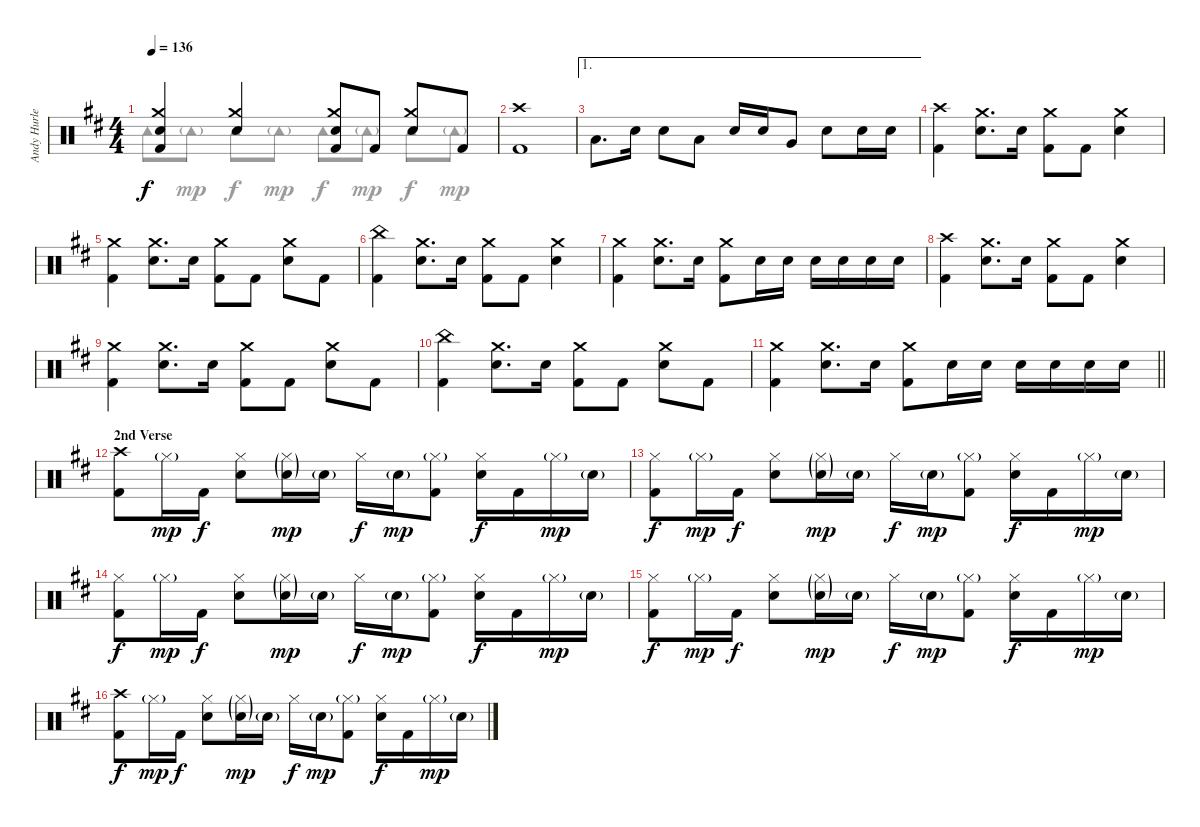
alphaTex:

\track ("Andy Hurley" "Andy Hurle") {instrument percussion}
\staff {score}
\articulation defaults
\voice
\ts (4 4)
\tempo 136
\clef neutral
\ks d
("Crash medium (hit)" "Snare (hit) 2" "Kick (hit) 2").4{dy f} ("Crash medium (hit)" "Snare (hit) 2").4 ("Crash medium (hit)" "Snare (hit) 2" "Kick (hit) 2").8 "Kick (hit) 2".8 ("Crash medium (hit)" "Snare (hit) 2").8 "Kick (hit) 2".8 |
("Crash high (hit)" "Kick (hit) 2").1 |
\ae 1 "Low Tom (hit)".8{d} "Snare (hit) 2".16 "Snare (hit) 2".8 "Low Tom (hit)".8 "Snare (hit) 2".16 "Snare (hit) 2".16 "Very Low Tom (hit)".8 "Snare (hit) 2".8 "Snare (hit) 2".16 "Snare (hit) 2".16
|
("Crash high (hit)" "Kick (hit) 2").4 ("Crash medium (hit)" "Snare (hit) 2").8{d} "Snare (hit) 2".16 ("Crash medium (hit)" "Kick (hit) 2").8 "Kick (hit) 2".8 ("Crash medium (hit)" "Snare (hit) 2").4 |
("Crash medium (hit)" "Kick (hit) 2").4 ("Crash medium (hit)" "Snare (hit) 2").8{d} "Snare (hit) 2".16 ("Crash medium (hit)" "Kick (hit) 2").8 "Kick (hit) 2".8 ("Crash medium (hit)" "Snare (hit) 2").8 "Kick (hit) 2".8 |
("China (hit)" "Kick (hit) 2").4 ("Crash medium (hit)" "Snare (hit) 2").8{d} "Snare (hit) 2".16 ("Crash medium (hit)" "Kick (hit) 2").8 "Kick (hit) 2".8 ("Crash medium (hit)" "Snare (hit) 2").4 |
("Crash medium (hit)" "Kick (hit) 2").4 ("Crash medium (hit)" "Snare (hit) 2").8{d} "Snare (hit) 2".16 ("Crash medium (hit)" "Kick (hit) 2").8 "Snare (hit) 2".16 "Snare (hit) 2".16 "Snare (hit) 2".16 "Snare (hit) 2".16 "Snare (hit) 2".16 "Snare (hit) 2".16 |
("Crash high (hit)" "Kick (hit) 2").4 ("Crash medium (hit)" "Snare (hit) 2").8{d} "Snare (hit) 2".16 ("Crash medium (hit)" "Kick (hit) 2").8 "Kick (hit) 2".8 ("Crash medium (hit)" "Snare (hit) 2").4 |
("Crash medium (hit)" "Kick (hit) 2").4 ("Crash medium (hit)" "Snare (hit) 2").8{d} "Snare (hit) 2".16 ("Crash medium (hit)" "Kick (hit) 2").8 "Kick (hit) 2".8 ("Crash medium (hit)" "Snare (hit) 2").8 "Kick (hit) 2".8 |
("China (hit)" "Kick (hit) 2").4 ("Crash medium (hit)" "Snare (hit) 2").8{d} "Snare (hit) 2".16 ("Crash medium (hit)" "Kick (hit) 2").8 "Kick (hit) 2".8 ("Crash medium (hit)" "Snare (hit) 2").8 "Kick (hit) 2".8 |
\barLineRight lightlight
("Crash medium (hit)" "Kick (hit) 2").4 ("Crash medium (hit)" "Snare (hit) 2").8{d} "Snare (hit) 2".16 ("Crash medium (hit)" "Kick (hit) 2").8 "Snare (hit) 2".16 "Snare (hit) 2".16 "Snare (hit) 2".16 "Snare (hit) 2".16 "Snare (hit) 2".16 "Snare (hit) 2".16 |
\section ("" "2nd Verse")
("Crash high (hit)" "Kick (hit) 2").8{volume 13} "Hi-Hat (closed)"{g}.16{dy mp} "Kick (hit) 2".16{dy f} ("Hi-Hat (closed)" "Snare (hit) 2").8 ("Hi-Hat (closed)"{g} "Snare (hit) 2"{g}).16{dy mp} "Snare (hit) 2"{g}.16 "Hi-Hat (closed)".16{dy f} "Snare (hit) 2"{g}.16{dy mp} ("Hi-Hat (closed)"{g} "Kick (hit) 2").8 ("Hi-Hat (closed)" "Snare (hit) 2").16{dy f} "Kick (hit) 2".16 "Hi-Hat (closed)"{g}.16{dy mp} "Snare (hit) 2"{g}.16 |
("Hi-Hat (closed)" "Kick (hit) 2").8{dy f} "Hi-Hat (closed)"{g}.16{dy mp} "Kick (hit) 2".16{dy f} ("Hi-Hat (closed)" "Snare (hit) 2").8 ("Hi-Hat (closed)"{g} "Snare (hit) 2"{g}).16{dy mp} "Snare (hit) 2"{g}.16 "Hi-Hat (closed)".16{dy f} "Snare (hit) 2"{g}.16{dy mp} ("Hi-Hat (closed)"{g} "Kick (hit) 2").8 ("Hi-Hat (closed)" "Snare (hit) 2").16{dy f} "Kick (hit) 2".16 "Hi-Hat (closed)"{g}.16{dy mp} "Snare (hit) 2"{g}.16 |
("Hi-Hat (closed)" "Kick (hit) 2").8{dy f} "Hi-Hat (closed)"{g}.16{dy mp} "Kick (hit) 2".16{dy f} ("Hi-Hat (closed)" "Snare (hit) 2").8 ("Hi-Hat (closed)"{g} "Snare (hit) 2"{g}).16{dy mp} "Snare (hit) 2"{g}.16 "Hi-Hat (closed)".16{dy f} "Snare (hit) 2"{g}.16{dy mp} ("Hi-Hat (closed)"{g} "Kick (hit) 2").8 ("Hi-Hat (closed)" "Snare (hit) 2").16{dy f} "Kick (hit) 2".16 "Hi-Hat (closed)"{g}.16{dy mp} "Snare (hit) 2"{g}.16 |
("Hi-Hat (closed)" "Kick (hit) 2").8{dy f} "Hi-Hat (closed)"{g}.16{dy mp} "Kick (hit) 2".16{dy f} ("Hi-Hat (closed)" "Snare (hit) 2").8 ("Hi-Hat (closed)"{g} "Snare (hit) 2"{g}).16{dy mp} "Snare (hit) 2"{g}.16 "Hi-Hat (closed)".16{dy f} "Snare (hit) 2"{g}.16{dy mp} ("Hi-Hat (closed)"{g} "Kick (hit) 2").8 ("Hi-Hat (closed)" "Snare (hit) 2").16{dy f} "Kick (hit) 2".16 "Hi-Hat (closed)"{g}.16{dy mp} "Snare (hit) 2"{g}.16 |
("Crash high (hit)" "Kick (hit) 2").8{dy f} "Hi-Hat (closed)"{g}.16{dy mp} "Kick (hit) 2".16{dy f} ("Hi-Hat (closed)" "Snare (hit) 2").8 ("Hi-Hat (closed)"{g} "Snare (hit) 2"{g}).16{dy mp} "Snare (hit) 2"{g}.16 "Hi-Hat (closed)".16{dy f} "Snare (hit) 2"{g}.16{dy mp} ("Hi-Hat (closed)"{g} "Kick (hit) 2").8 ("Hi-Hat (closed)" "Snare (hit) 2").16{dy f} "Kick (hit) 2".16 "Hi-Hat (closed)"{g}.16{dy mp} "Snare (hit) 2"{g}.16
\voice
\clef neutral
\ottava regular
\simile none
\ks d "Tambourine (hit)".8{dy f} "Tambourine (hit)"{g}.8{dy mp} "Tambourine (hit)".8{dy f} "Tambourine (hit)"{g}.8{dy mp} "Tambourine (hit)".8{dy f} "Tambourine (hit)"{g}.8{dy mp} "Tambourine (hit)".8{dy f} "Tambourine (hit)"{g}.8{dy mp}
|
|
|
|
|
|
|
|
|
|
\barLineRight lightlight
|
|
|
|
|
